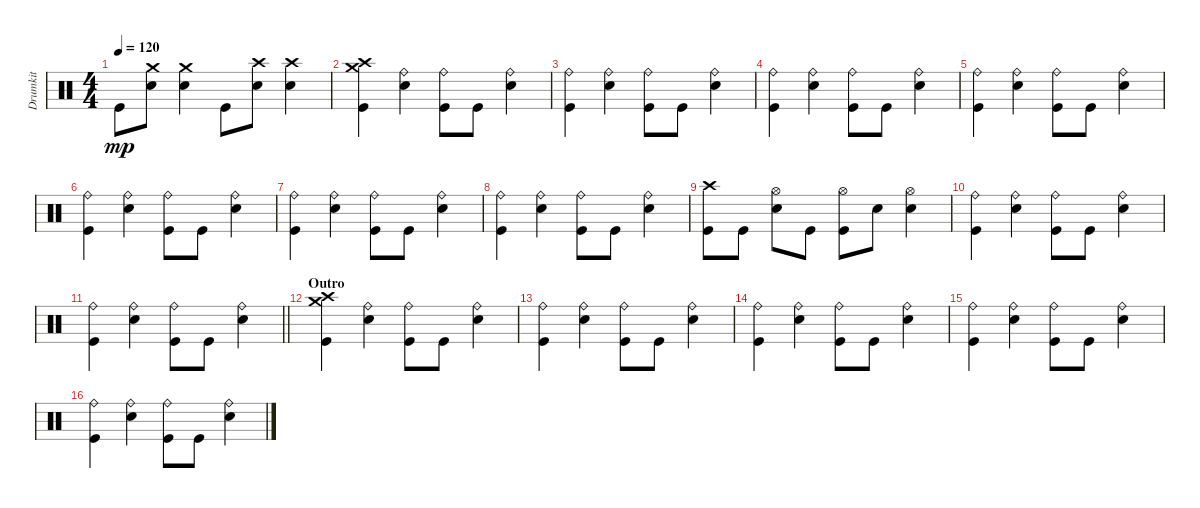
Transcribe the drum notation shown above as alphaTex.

\track ("Drumkit" "Drumkit") {instrument percussion}
\staff {score}
\articulation defaults
\ts (4 4)
\tempo 120
\clef neutral
\ks c "Kick (hit)".8{dy mp}
("Snare (hit) 2" "Crash medium (hit)").8 ("Snare (hit) 2" "Crash medium (hit)").4 "Kick (hit)".8 ("Snare (hit) 2" "Crash high (hit)").8 ("Snare (hit) 2" "Crash high (hit)").4 |
("Kick (hit)" "Crash high (hit)" "Crash medium (hit)").4 ("Snare (hit) 2" "Ride (bell)").4 ("Kick (hit)" "Ride (bell)").8 "Kick (hit)".8 ("Snare (hit) 2" "Ride (bell)").4 |
("Kick (hit)" "Ride (bell)").4 ("Snare (hit) 2" "Ride (bell)").4 ("Kick (hit)" "Ride (bell)").8 "Kick (hit)".8 ("Snare (hit) 2" "Ride (bell)").4 |
("Kick (hit)" "Ride (bell)").4 ("Snare (hit) 2" "Ride (bell)").4 ("Kick (hit)" "Ride (bell)").8 "Kick (hit)".8 ("Snare (hit) 2" "Ride (bell)").4 |
("Kick (hit)" "Ride (bell)").4 ("Snare (hit) 2" "Ride (bell)").4 ("Kick (hit)" "Ride (bell)").8 "Kick (hit)".8 ("Snare (hit) 2" "Ride (bell)").4 |
("Kick (hit)" "Ride (bell)").4 ("Snare (hit) 2" "Ride (bell)").4 ("Kick (hit)" "Ride (bell)").8 "Kick (hit)".8 ("Snare (hit) 2" "Ride (bell)").4 |
("Kick (hit)" "Ride (bell)").4 ("Snare (hit) 2" "Ride (bell)").4 ("Kick (hit)" "Ride (bell)").8 "Kick (hit)".8 ("Snare (hit) 2" "Ride (bell)").4 |
("Kick (hit)" "Ride (bell)").4 ("Snare (hit) 2" "Ride (bell)").4 ("Kick (hit)" "Ride (bell)").8 "Kick (hit)".8 ("Snare (hit) 2" "Ride (bell)").4 |
("Kick (hit)" "Crash high (hit)").8 "Kick (hit)".8 ("Snare (hit) 2" "Hi-Hat (open)").8 "Kick (hit)".8 ("Kick (hit)" "Hi-Hat (open)").8 "Snare (hit) 2".8 ("Snare (hit) 2" "Hi-Hat (open)").4 |
("Kick (hit)" "Ride (bell)").4 ("Snare (hit) 2" "Ride (bell)").4 ("Kick (hit)" "Ride (bell)").8 "Kick (hit)".8 ("Snare (hit) 2" "Ride (bell)").4 |
\barLineRight lightlight
("Kick (hit)" "Ride (bell)").4 ("Snare (hit) 2" "Ride (bell)").4 ("Kick (hit)" "Ride (bell)").8 "Kick (hit)".8 ("Snare (hit) 2" "Ride (bell)").4 |
\section ("" "Outro")
("Kick (hit)" "Crash high (hit)" "Crash medium (hit)").4 ("Snare (hit) 2" "Ride (bell)").4 ("Kick (hit)" "Ride (bell)").8 "Kick (hit)".8 ("Snare (hit) 2" "Ride (bell)").4 |
("Kick (hit)" "Ride (bell)").4 ("Snare (hit) 2" "Ride (bell)").4 ("Kick (hit)" "Ride (bell)").8 "Kick (hit)".8 ("Snare (hit) 2" "Ride (bell)").4 |
("Kick (hit)" "Ride (bell)").4 ("Snare (hit) 2" "Ride (bell)").4 ("Kick (hit)" "Ride (bell)").8 "Kick (hit)".8 ("Snare (hit) 2" "Ride (bell)").4 |
("Kick (hit)" "Ride (bell)").4 ("Snare (hit) 2" "Ride (bell)").4 ("Kick (hit)" "Ride (bell)").8 "Kick (hit)".8 ("Snare (hit) 2" "Ride (bell)").4 |
("Kick (hit)" "Ride (bell)").4 ("Snare (hit) 2" "Ride (bell)").4 ("Kick (hit)" "Ride (bell)").8 "Kick (hit)".8 ("Snare (hit) 2" "Ride (bell)").4
